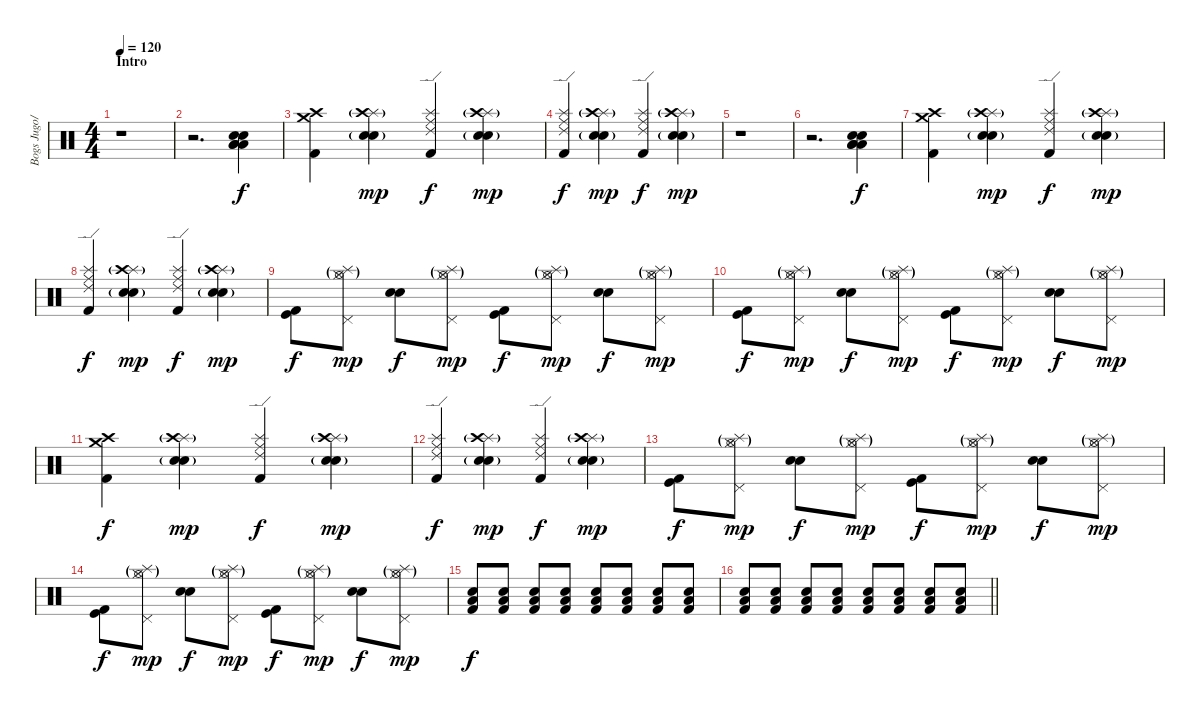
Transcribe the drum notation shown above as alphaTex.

\track ("Bogs Jugo/Drums" "Bogs Jugo/") {instrument percussion}
\staff {score}
\articulation defaults
\ts (4 4)
\section ("" "Intro")
\tempo 120
\clef neutral
\ks c
r.1{dy f} |
r.2{d} ("Electric Snare (hit)" "Snare (hit) 2" "Low Tom (hit)" "Low Tom (hit)" "Low Tom (hit)").4 |
("Crash medium (hit)" "Crash high (hit)" "Kick (hit) 2").4 ("Splash (hit)" "Crash high (hit)"{g} "Electric Snare (hit)" "Snare (hit) 2"{g}).4{dy mp} ("Splash (hit)" "Kick (hit) 2" "Ride (middle)" "Ride (edge) 2").4{dy f} ("Splash (hit)" "Crash high (hit)"{g} "Electric Snare (hit)" "Snare (hit) 2"{g}).4{dy mp} |
("Splash (hit)" "Kick (hit) 2" "Ride (middle)" "Ride (edge) 2").4{dy f} ("Splash (hit)" "Crash high (hit)"{g} "Electric Snare (hit)" "Snare (hit) 2"{g}).4{dy mp} ("Splash (hit)" "Kick (hit) 2" "Ride (middle)" "Ride (edge) 2").4{dy f} ("Splash (hit)" "Crash high (hit)"{g} "Electric Snare (hit)" "Snare (hit) 2"{g}).4{dy mp} |
r.1 |
r.2{d} ("Electric Snare (hit)" "Snare (hit) 2" "Low Tom (hit)" "Low Tom (hit)" "Low Tom (hit)").4{dy f} |
("Crash medium (hit)" "Crash high (hit)" "Kick (hit) 2").4 ("Splash (hit)" "Crash high (hit)"{g} "Electric Snare (hit)" "Snare (hit) 2"{g}).4{dy mp} ("Splash (hit)" "Kick (hit) 2" "Ride (middle)" "Ride (edge) 2").4{dy f} ("Splash (hit)" "Crash high (hit)"{g} "Electric Snare (hit)" "Snare (hit) 2"{g}).4{dy mp} |
("Splash (hit)" "Kick (hit) 2" "Ride (middle)" "Ride (edge) 2").4{dy f} ("Splash (hit)" "Crash high (hit)"{g} "Electric Snare (hit)" "Snare (hit) 2"{g}).4{dy mp} ("Splash (hit)" "Kick (hit) 2" "Ride (middle)" "Ride (edge) 2").4{dy f} ("Splash (hit)" "Crash high (hit)"{g} "Electric Snare (hit)" "Snare (hit) 2"{g}).4{dy mp} |
("Kick (hit) 2" "Kick (hit)").8{dy f} ("Hi-Hat (open)"{g} "Splash (hit)"{g} "Pedal Hi-Hat (hit)" "Hi-Hat (closed)").8{dy mp} ("Electric Snare (hit)" "Snare (hit) 2").8{dy f} ("Hi-Hat (open)"{g} "Splash (hit)"{g} "Pedal Hi-Hat (hit)" "Hi-Hat (closed)").8{dy mp} ("Kick (hit) 2" "Kick (hit)").8{dy f} ("Hi-Hat (open)"{g} "Splash (hit)"{g} "Pedal Hi-Hat (hit)" "Hi-Hat (closed)").8{dy mp} ("Electric Snare (hit)" "Snare (hit) 2").8{dy f} ("Hi-Hat (open)"{g} "Splash (hit)"{g} "Pedal Hi-Hat (hit)" "Hi-Hat (closed)").8{dy mp} |
("Kick (hit) 2" "Kick (hit)").8{dy f} ("Hi-Hat (open)"{g} "Splash (hit)"{g} "Pedal Hi-Hat (hit)" "Hi-Hat (closed)").8{dy mp} ("Electric Snare (hit)" "Snare (hit) 2").8{dy f} ("Hi-Hat (open)"{g} "Splash (hit)"{g} "Pedal Hi-Hat (hit)" "Hi-Hat (closed)").8{dy mp} ("Kick (hit) 2" "Kick (hit)").8{dy f} ("Hi-Hat (open)"{g} "Splash (hit)"{g} "Pedal Hi-Hat (hit)" "Hi-Hat (closed)").8{dy mp} ("Electric Snare (hit)" "Snare (hit) 2").8{dy f} ("Hi-Hat (open)"{g} "Splash (hit)"{g} "Pedal Hi-Hat (hit)" "Hi-Hat (closed)").8{dy mp} |
("Crash medium (hit)" "Crash high (hit)" "Kick (hit) 2").4{dy f} ("Splash (hit)" "Crash high (hit)"{g} "Electric Snare (hit)" "Snare (hit) 2"{g}).4{dy mp} ("Splash (hit)" "Kick (hit) 2" "Ride (middle)" "Ride (edge) 2").4{dy f} ("Splash (hit)" "Crash high (hit)"{g} "Electric Snare (hit)" "Snare (hit) 2"{g}).4{dy mp} |
("Splash (hit)" "Kick (hit) 2" "Ride (middle)" "Ride (edge) 2").4{dy f} ("Splash (hit)" "Crash high (hit)"{g} "Electric Snare (hit)" "Snare (hit) 2"{g}).4{dy mp} ("Splash (hit)" "Kick (hit) 2" "Ride (middle)" "Ride (edge) 2").4{dy f} ("Splash (hit)" "Crash high (hit)"{g} "Electric Snare (hit)" "Snare (hit) 2"{g}).4{dy mp} |
("Kick (hit) 2" "Kick (hit)").8{dy f} ("Hi-Hat (open)"{g} "Splash (hit)"{g} "Pedal Hi-Hat (hit)" "Hi-Hat (closed)").8{dy mp} ("Electric Snare (hit)" "Snare (hit) 2").8{dy f} ("Hi-Hat (open)"{g} "Splash (hit)"{g} "Pedal Hi-Hat (hit)" "Hi-Hat (closed)").8{dy mp} ("Kick (hit) 2" "Kick (hit)").8{dy f} ("Hi-Hat (open)"{g} "Splash (hit)"{g} "Pedal Hi-Hat (hit)" "Hi-Hat (closed)").8{dy mp} ("Electric Snare (hit)" "Snare (hit) 2").8{dy f} ("Hi-Hat (open)"{g} "Splash (hit)"{g} "Pedal Hi-Hat (hit)" "Hi-Hat (closed)").8{dy mp} |
("Kick (hit) 2" "Kick (hit)").8{dy f} ("Hi-Hat (open)"{g} "Splash (hit)"{g} "Pedal Hi-Hat (hit)" "Hi-Hat (closed)").8{dy mp} ("Electric Snare (hit)" "Snare (hit) 2").8{dy f} ("Hi-Hat (open)"{g} "Splash (hit)"{g} "Pedal Hi-Hat (hit)" "Hi-Hat (closed)").8{dy mp} ("Kick (hit) 2" "Kick (hit)").8{dy f} ("Hi-Hat (open)"{g} "Splash (hit)"{g} "Pedal Hi-Hat (hit)" "Hi-Hat (closed)").8{dy mp} ("Electric Snare (hit)" "Snare (hit) 2").8{dy f} ("Hi-Hat (open)"{g} "Splash (hit)"{g} "Pedal Hi-Hat (hit)" "Hi-Hat (closed)").8{dy mp} |
("Electric Snare (hit)" "Low Tom (hit)" "Kick (hit) 2").8{dy f} ("Electric Snare (hit)" "Low Tom (hit)" "Kick (hit) 2").8 ("Electric Snare (hit)" "Low Tom (hit)" "Kick (hit) 2").8 ("Electric Snare (hit)" "Low Tom (hit)" "Kick (hit) 2").8 ("Electric Snare (hit)" "Low Tom (hit)" "Kick (hit) 2").8 ("Electric Snare (hit)" "Low Tom (hit)" "Kick (hit) 2").8 ("Electric Snare (hit)" "Low Tom (hit)" "Kick (hit) 2").8 ("Electric Snare (hit)" "Low Tom (hit)" "Kick (hit) 2").8 |
\barLineRight lightlight
("Electric Snare (hit)" "Low Tom (hit)" "Kick (hit) 2").8 ("Electric Snare (hit)" "Low Tom (hit)" "Kick (hit) 2").8 ("Electric Snare (hit)" "Low Tom (hit)" "Kick (hit) 2").8 ("Electric Snare (hit)" "Low Tom (hit)" "Kick (hit) 2").8 ("Electric Snare (hit)" "Low Tom (hit)" "Kick (hit) 2").8 ("Electric Snare (hit)" "Low Tom (hit)" "Kick (hit) 2").8 ("Electric Snare (hit)" "Low Tom (hit)" "Kick (hit) 2").8 ("Electric Snare (hit)" "Low Tom (hit)" "Kick (hit) 2").8
